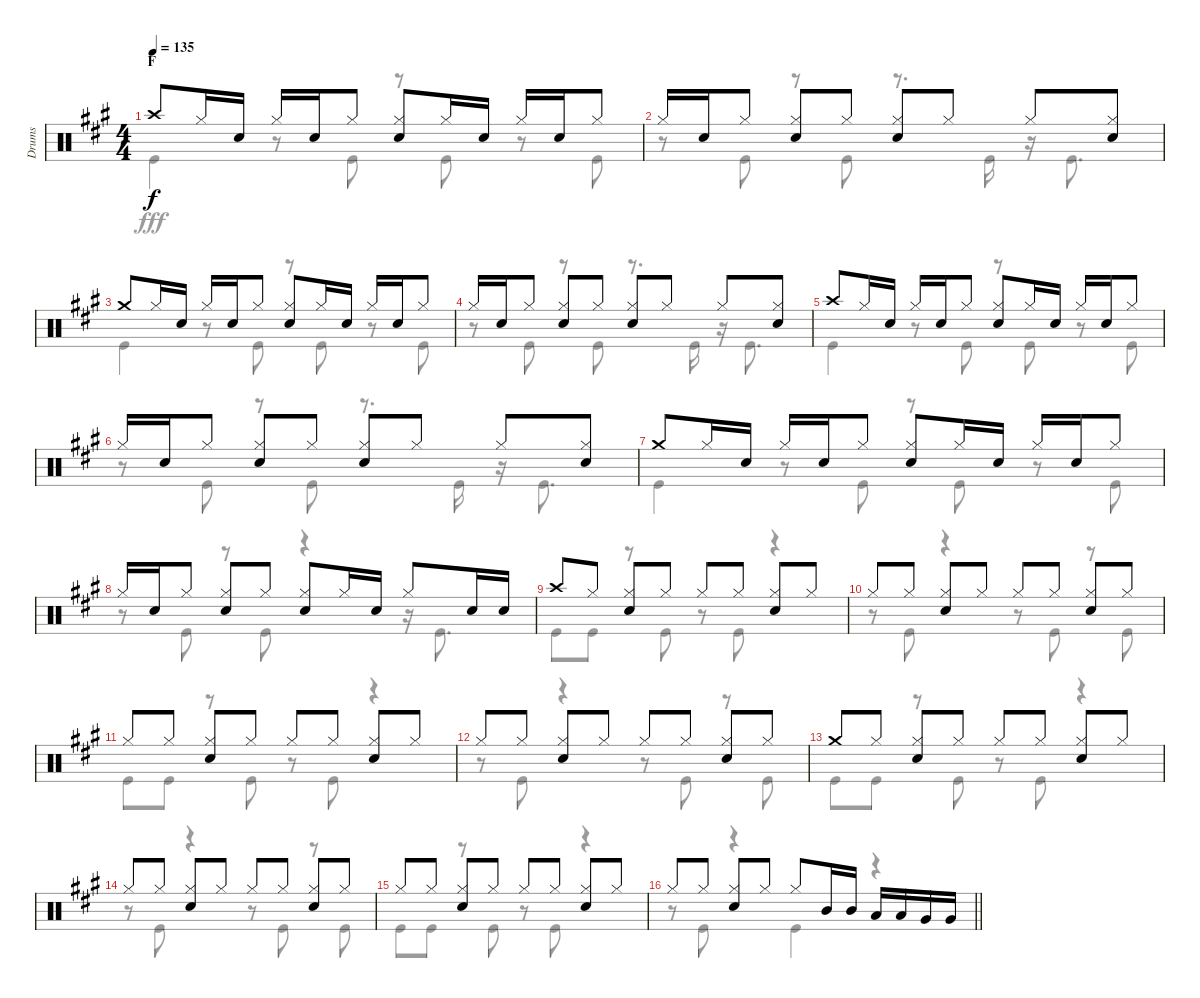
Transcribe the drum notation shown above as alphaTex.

\track ("Drums" "Drums") {instrument percussion}
\staff {score}
\articulation defaults
\voice
\ts (4 4)
\section ("" "F")
\tempo 135
\clef neutral
\ks a "Crash high (hit)".8{dy f} "Hi-Hat (closed)".16 "Snare (hit) 2".16 "Hi-Hat (closed)".16 "Snare (hit) 2".16 "Hi-Hat (closed)".8
("Hi-Hat (closed)" "Snare (hit) 2").8 "Hi-Hat (closed)".16 "Snare (hit) 2".16 "Hi-Hat (closed)".16 "Snare (hit) 2".16 "Hi-Hat (closed)".8 |
"Hi-Hat (closed)".16 "Snare (hit) 2".16 "Hi-Hat (closed)".8 ("Hi-Hat (closed)" "Snare (hit) 2").8 "Hi-Hat (closed)".8 ("Hi-Hat (closed)" "Snare (hit) 2").8 "Hi-Hat (closed)".8 "Hi-Hat (closed)".8 ("Hi-Hat (closed)" "Snare (hit) 2").8 |
"Crash medium (hit)".8 "Hi-Hat (closed)".16 "Snare (hit) 2".16 "Hi-Hat (closed)".16 "Snare (hit) 2".16 "Hi-Hat (closed)".8 ("Hi-Hat (closed)" "Snare (hit) 2").8 "Hi-Hat (closed)".16 "Snare (hit) 2".16 "Hi-Hat (closed)".16 "Snare (hit) 2".16 "Hi-Hat (closed)".8 |
"Hi-Hat (closed)".16 "Snare (hit) 2".16 "Hi-Hat (closed)".8 ("Hi-Hat (closed)" "Snare (hit) 2").8 "Hi-Hat (closed)".8 ("Hi-Hat (closed)" "Snare (hit) 2").8 "Hi-Hat (closed)".8 "Hi-Hat (closed)".8 ("Hi-Hat (closed)" "Snare (hit) 2").8 |
"Crash high (hit)".8 "Hi-Hat (closed)".16 "Snare (hit) 2".16 "Hi-Hat (closed)".16 "Snare (hit) 2".16 "Hi-Hat (closed)".8 ("Hi-Hat (closed)" "Snare (hit) 2").8 "Hi-Hat (closed)".16 "Snare (hit) 2".16 "Hi-Hat (closed)".16 "Snare (hit) 2".16 "Hi-Hat (closed)".8 |
"Hi-Hat (closed)".16 "Snare (hit) 2".16 "Hi-Hat (closed)".8 ("Hi-Hat (closed)" "Snare (hit) 2").8 "Hi-Hat (closed)".8 ("Hi-Hat (closed)" "Snare (hit) 2").8 "Hi-Hat (closed)".8 "Hi-Hat (closed)".8 ("Hi-Hat (closed)" "Snare (hit) 2").8 |
"Crash medium (hit)".8 "Hi-Hat (closed)".16 "Snare (hit) 2".16 "Hi-Hat (closed)".16 "Snare (hit) 2".16 "Hi-Hat (closed)".8 ("Hi-Hat (closed)" "Snare (hit) 2").8 "Hi-Hat (closed)".16 "Snare (hit) 2".16 "Hi-Hat (closed)".16 "Snare (hit) 2".16 "Hi-Hat (closed)".8 |
"Hi-Hat (closed)".16 "Snare (hit) 2".16 "Hi-Hat (closed)".8 ("Hi-Hat (closed)" "Snare (hit) 2").8 "Hi-Hat (closed)".8 ("Hi-Hat (closed)" "Snare (hit) 2").8 "Hi-Hat (closed)".16 "Snare (hit) 2".16 "Hi-Hat (closed)".8 "Snare (hit) 2".16 "Snare (hit) 2".16 |
"Crash high (hit)".8 "Hi-Hat (closed)".8 ("Hi-Hat (closed)" "Snare (hit) 2").8 "Hi-Hat (closed)".8 "Hi-Hat (closed)".8 "Hi-Hat (closed)".8 ("Hi-Hat (closed)" "Snare (hit) 2").8 "Hi-Hat (closed)".8 |
"Hi-Hat (closed)".8 "Hi-Hat (closed)".8 ("Hi-Hat (closed)" "Snare (hit) 2").8 "Hi-Hat (closed)".8 "Hi-Hat (closed)".8 "Hi-Hat (closed)".8 ("Hi-Hat (closed)" "Snare (hit) 2").8 "Hi-Hat (closed)".8 |
"Hi-Hat (closed)".8 "Hi-Hat (closed)".8 ("Hi-Hat (closed)" "Snare (hit) 2").8 "Hi-Hat (closed)".8 "Hi-Hat (closed)".8 "Hi-Hat (closed)".8 ("Hi-Hat (closed)" "Snare (hit) 2").8 "Hi-Hat (closed)".8 |
"Hi-Hat (closed)".8 "Hi-Hat (closed)".8 ("Hi-Hat (closed)" "Snare (hit) 2").8 "Hi-Hat (closed)".8 "Hi-Hat (closed)".8 "Hi-Hat (closed)".8 ("Hi-Hat (closed)" "Snare (hit) 2").8 "Hi-Hat (closed)".8 |
"Crash medium (hit)".8 "Hi-Hat (closed)".8 ("Hi-Hat (closed)" "Snare (hit) 2").8 "Hi-Hat (closed)".8 "Hi-Hat (closed)".8 "Hi-Hat (closed)".8 ("Hi-Hat (closed)" "Snare (hit) 2").8 "Hi-Hat (closed)".8 |
"Hi-Hat (closed)".8 "Hi-Hat (closed)".8 ("Hi-Hat (closed)" "Snare (hit) 2").8 "Hi-Hat (closed)".8 "Hi-Hat (closed)".8 "Hi-Hat (closed)".8 ("Hi-Hat (closed)" "Snare (hit) 2").8 "Hi-Hat (closed)".8 |
"Hi-Hat (closed)".8 "Hi-Hat (closed)".8 ("Hi-Hat (closed)" "Snare (hit) 2").8 "Hi-Hat (closed)".8 "Hi-Hat (closed)".8 "Hi-Hat (closed)".8 ("Hi-Hat (closed)" "Snare (hit) 2").8 "Hi-Hat (closed)".8 |
\barLineRight lightlight "Hi-Hat (closed)".8 "Hi-Hat (closed)".8
("Hi-Hat (closed)" "Snare (hit) 2").8 "Hi-Hat (closed)".8 "Hi-Hat (closed)".8 "Mid Tom (hit)".16 "Mid Tom (hit)".16 "Low Tom (hit)".16 "Low Tom (hit)".16 "Very Low Tom (hit)".16 "Very Low Tom (hit)".16
\voice
\clef neutral
\ottava regular
\simile none
\ks a "Kick (hit)".4{dy fff}
r.8 "Kick (hit)".8 r.8 "Kick (hit)".8 r.8 "Kick (hit)".8 |
r.8 "Kick (hit)".8 r.8 "Kick (hit)".8 r.8{d} "Kick (hit)".16 r.16 "Kick (hit)".8{d} |
"Kick (hit)".4 r.8 "Kick (hit)".8 r.8 "Kick (hit)".8 r.8 "Kick (hit)".8 |
r.8 "Kick (hit)".8 r.8 "Kick (hit)".8 r.8{d} "Kick (hit)".16 r.16 "Kick (hit)".8{d} |
"Kick (hit)".4 r.8 "Kick (hit)".8 r.8 "Kick (hit)".8 r.8 "Kick (hit)".8 |
r.8 "Kick (hit)".8 r.8 "Kick (hit)".8 r.8{d} "Kick (hit)".16 r.16 "Kick (hit)".8{d} |
"Kick (hit)".4 r.8 "Kick (hit)".8 r.8 "Kick (hit)".8 r.8 "Kick (hit)".8 |
r.8 "Kick (hit)".8 r.8 "Kick (hit)".8 r.4 r.16 "Kick (hit)".8{d} |
"Kick (hit)".8 "Kick (hit)".8 r.8 "Kick (hit)".8 r.8 "Kick (hit)".8 r.4 |
r.8 "Kick (hit)".8 r.4 r.8 "Kick (hit)".8 r.8 "Kick (hit)".8 |
"Kick (hit)".8 "Kick (hit)".8 r.8 "Kick (hit)".8 r.8 "Kick (hit)".8 r.4 |
r.8 "Kick (hit)".8 r.4 r.8 "Kick (hit)".8 r.8 "Kick (hit)".8 |
"Kick (hit)".8 "Kick (hit)".8 r.8 "Kick (hit)".8 r.8 "Kick (hit)".8 r.4 |
r.8 "Kick (hit)".8 r.4 r.8 "Kick (hit)".8 r.8 "Kick (hit)".8 |
"Kick (hit)".8 "Kick (hit)".8 r.8 "Kick (hit)".8 r.8 "Kick (hit)".8 r.4 |
\barLineRight lightlight
r.8 "Kick (hit)".8 r.4 "Kick (hit)".4 r.4
